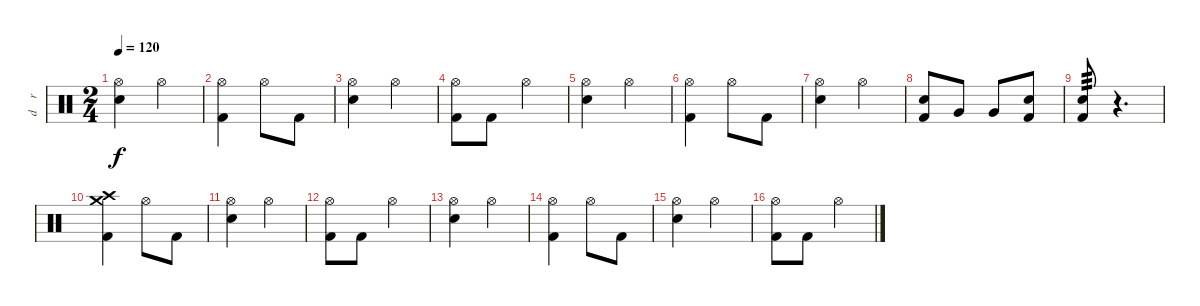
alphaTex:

\track ("d    r     u    m    s" "d    r    ") {instrument percussion}
\staff {score}
\articulation defaults
\ts (2 4)
\tempo 120
\clef neutral
\ks c
("Hi-Hat (open)" "Snare (hit) 2").4{dy f} "Hi-Hat (open)".4 |
("Hi-Hat (open)" "Kick (hit) 2").4 "Hi-Hat (open)".8 "Kick (hit) 2".8 |
("Hi-Hat (open)" "Snare (hit) 2").4 "Hi-Hat (open)".4 |
("Hi-Hat (open)" "Kick (hit) 2").8 "Kick (hit) 2".8 "Hi-Hat (open)".4 |
("Hi-Hat (open)" "Snare (hit) 2").4 "Hi-Hat (open)".4 |
("Hi-Hat (open)" "Kick (hit) 2").4 "Hi-Hat (open)".8 "Kick (hit) 2".8 |
("Hi-Hat (open)" "Snare (hit) 2").4 "Hi-Hat (open)".4 |
("Snare (hit) 2" "Kick (hit) 2").8 "Very Low Tom (hit)".8 "Very Low Tom (hit)".8 ("Snare (hit) 2" "Kick (hit) 2").8 |
("Snare (hit) 2" "Kick (hit) 2").8{tp 3} r.4{d} |
("Crash high (hit)" "Crash medium (hit)" "Kick (hit) 2").4 "Hi-Hat (open)".8 "Kick (hit) 2".8 |
("Hi-Hat (open)" "Snare (hit) 2").4 "Hi-Hat (open)".4 |
("Hi-Hat (open)" "Kick (hit) 2").8 "Kick (hit) 2".8 "Hi-Hat (open)".4 |
("Hi-Hat (open)" "Snare (hit) 2").4 "Hi-Hat (open)".4 |
("Hi-Hat (open)" "Kick (hit) 2").4 "Hi-Hat (open)".8 "Kick (hit) 2".8 |
("Hi-Hat (open)" "Snare (hit) 2").4 "Hi-Hat (open)".4 |
("Hi-Hat (open)" "Kick (hit) 2").8 "Kick (hit) 2".8 "Hi-Hat (open)".4
